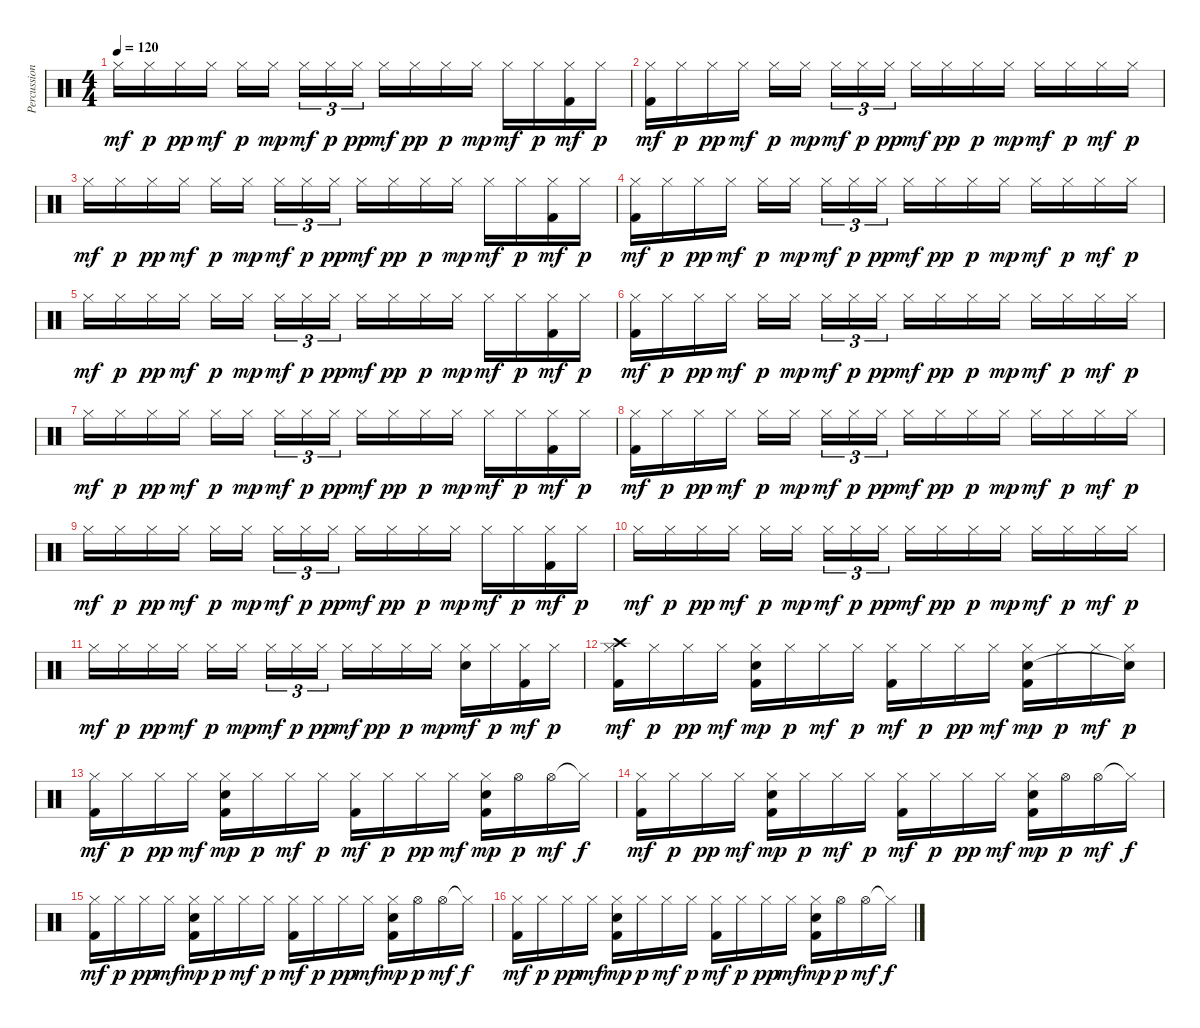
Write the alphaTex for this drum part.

\track ("Percussion" "Percussion") {instrument percussion}
\staff {score}
\articulation defaults
\ts (4 4)
\tempo 120
\clef neutral
\ks c "Hi-Hat (closed)".16{dy mf} "Hi-Hat (closed)".16{dy p} "Hi-Hat (closed)".16{dy pp} "Hi-Hat (closed)".16{dy mf} "Hi-Hat (closed)".16{dy p} "Hi-Hat (closed)".16{dy mp beam splitsecondary} "Hi-Hat (closed)".16{tu (3 2) dy mf} "Hi-Hat (closed)".16{tu (3 2) dy p} "Hi-Hat (closed)".16{tu (3 2) dy pp} "Hi-Hat (closed)".16{dy mf} "Hi-Hat (closed)".16{dy pp} "Hi-Hat (closed)".16{dy p} "Hi-Hat (closed)".16{dy mp} "Hi-Hat (closed)".16{dy mf} "Hi-Hat (closed)".16{dy p}
("Hi-Hat (closed)" "Kick (hit) 2").16{dy mf} "Hi-Hat (closed)".16{dy p} |
("Hi-Hat (closed)" "Kick (hit) 2").16{dy mf} "Hi-Hat (closed)".16{dy p} "Hi-Hat (closed)".16{dy pp} "Hi-Hat (closed)".16{dy mf} "Hi-Hat (closed)".16{dy p} "Hi-Hat (closed)".16{dy mp beam splitsecondary} "Hi-Hat (closed)".16{tu (3 2) dy mf} "Hi-Hat (closed)".16{tu (3 2) dy p} "Hi-Hat (closed)".16{tu (3 2) dy pp} "Hi-Hat (closed)".16{dy mf} "Hi-Hat (closed)".16{dy pp} "Hi-Hat (closed)".16{dy p} "Hi-Hat (closed)".16{dy mp} "Hi-Hat (closed)".16{dy mf} "Hi-Hat (closed)".16{dy p} "Hi-Hat (closed)".16{dy mf} "Hi-Hat (closed)".16{dy p} |
"Hi-Hat (closed)".16{dy mf} "Hi-Hat (closed)".16{dy p} "Hi-Hat (closed)".16{dy pp} "Hi-Hat (closed)".16{dy mf} "Hi-Hat (closed)".16{dy p} "Hi-Hat (closed)".16{dy mp beam splitsecondary} "Hi-Hat (closed)".16{tu (3 2) dy mf} "Hi-Hat (closed)".16{tu (3 2) dy p} "Hi-Hat (closed)".16{tu (3 2) dy pp} "Hi-Hat (closed)".16{dy mf} "Hi-Hat (closed)".16{dy pp} "Hi-Hat (closed)".16{dy p} "Hi-Hat (closed)".16{dy mp} "Hi-Hat (closed)".16{dy mf} "Hi-Hat (closed)".16{dy p} ("Hi-Hat (closed)" "Kick (hit) 2").16{dy mf} "Hi-Hat (closed)".16{dy p} |
("Hi-Hat (closed)" "Kick (hit) 2").16{dy mf} "Hi-Hat (closed)".16{dy p} "Hi-Hat (closed)".16{dy pp} "Hi-Hat (closed)".16{dy mf} "Hi-Hat (closed)".16{dy p} "Hi-Hat (closed)".16{dy mp beam splitsecondary} "Hi-Hat (closed)".16{tu (3 2) dy mf} "Hi-Hat (closed)".16{tu (3 2) dy p} "Hi-Hat (closed)".16{tu (3 2) dy pp} "Hi-Hat (closed)".16{dy mf} "Hi-Hat (closed)".16{dy pp} "Hi-Hat (closed)".16{dy p} "Hi-Hat (closed)".16{dy mp} "Hi-Hat (closed)".16{dy mf} "Hi-Hat (closed)".16{dy p} "Hi-Hat (closed)".16{dy mf} "Hi-Hat (closed)".16{dy p} |
"Hi-Hat (closed)".16{dy mf} "Hi-Hat (closed)".16{dy p} "Hi-Hat (closed)".16{dy pp} "Hi-Hat (closed)".16{dy mf} "Hi-Hat (closed)".16{dy p} "Hi-Hat (closed)".16{dy mp beam splitsecondary} "Hi-Hat (closed)".16{tu (3 2) dy mf} "Hi-Hat (closed)".16{tu (3 2) dy p} "Hi-Hat (closed)".16{tu (3 2) dy pp} "Hi-Hat (closed)".16{dy mf} "Hi-Hat (closed)".16{dy pp} "Hi-Hat (closed)".16{dy p} "Hi-Hat (closed)".16{dy mp} "Hi-Hat (closed)".16{dy mf} "Hi-Hat (closed)".16{dy p} ("Hi-Hat (closed)" "Kick (hit) 2").16{dy mf} "Hi-Hat (closed)".16{dy p} |
("Hi-Hat (closed)" "Kick (hit) 2").16{dy mf} "Hi-Hat (closed)".16{dy p} "Hi-Hat (closed)".16{dy pp} "Hi-Hat (closed)".16{dy mf} "Hi-Hat (closed)".16{dy p} "Hi-Hat (closed)".16{dy mp beam splitsecondary} "Hi-Hat (closed)".16{tu (3 2) dy mf} "Hi-Hat (closed)".16{tu (3 2) dy p} "Hi-Hat (closed)".16{tu (3 2) dy pp} "Hi-Hat (closed)".16{dy mf} "Hi-Hat (closed)".16{dy pp} "Hi-Hat (closed)".16{dy p} "Hi-Hat (closed)".16{dy mp} "Hi-Hat (closed)".16{dy mf} "Hi-Hat (closed)".16{dy p} "Hi-Hat (closed)".16{dy mf} "Hi-Hat (closed)".16{dy p} |
"Hi-Hat (closed)".16{dy mf} "Hi-Hat (closed)".16{dy p} "Hi-Hat (closed)".16{dy pp} "Hi-Hat (closed)".16{dy mf} "Hi-Hat (closed)".16{dy p} "Hi-Hat (closed)".16{dy mp beam splitsecondary} "Hi-Hat (closed)".16{tu (3 2) dy mf} "Hi-Hat (closed)".16{tu (3 2) dy p} "Hi-Hat (closed)".16{tu (3 2) dy pp} "Hi-Hat (closed)".16{dy mf} "Hi-Hat (closed)".16{dy pp} "Hi-Hat (closed)".16{dy p} "Hi-Hat (closed)".16{dy mp} "Hi-Hat (closed)".16{dy mf} "Hi-Hat (closed)".16{dy p} ("Hi-Hat (closed)" "Kick (hit) 2").16{dy mf} "Hi-Hat (closed)".16{dy p} |
("Hi-Hat (closed)" "Kick (hit) 2").16{dy mf} "Hi-Hat (closed)".16{dy p} "Hi-Hat (closed)".16{dy pp} "Hi-Hat (closed)".16{dy mf} "Hi-Hat (closed)".16{dy p} "Hi-Hat (closed)".16{dy mp beam splitsecondary} "Hi-Hat (closed)".16{tu (3 2) dy mf} "Hi-Hat (closed)".16{tu (3 2) dy p} "Hi-Hat (closed)".16{tu (3 2) dy pp} "Hi-Hat (closed)".16{dy mf} "Hi-Hat (closed)".16{dy pp} "Hi-Hat (closed)".16{dy p} "Hi-Hat (closed)".16{dy mp} "Hi-Hat (closed)".16{dy mf} "Hi-Hat (closed)".16{dy p} "Hi-Hat (closed)".16{dy mf} "Hi-Hat (closed)".16{dy p} |
"Hi-Hat (closed)".16{dy mf} "Hi-Hat (closed)".16{dy p} "Hi-Hat (closed)".16{dy pp} "Hi-Hat (closed)".16{dy mf} "Hi-Hat (closed)".16{dy p} "Hi-Hat (closed)".16{dy mp beam splitsecondary} "Hi-Hat (closed)".16{tu (3 2) dy mf} "Hi-Hat (closed)".16{tu (3 2) dy p} "Hi-Hat (closed)".16{tu (3 2) dy pp} "Hi-Hat (closed)".16{dy mf} "Hi-Hat (closed)".16{dy pp} "Hi-Hat (closed)".16{dy p} "Hi-Hat (closed)".16{dy mp} "Hi-Hat (closed)".16{dy mf} "Hi-Hat (closed)".16{dy p} ("Hi-Hat (closed)" "Kick (hit) 2").16{dy mf} "Hi-Hat (closed)".16{dy p} |
"Hi-Hat (closed)".16{dy mf} "Hi-Hat (closed)".16{dy p} "Hi-Hat (closed)".16{dy pp} "Hi-Hat (closed)".16{dy mf} "Hi-Hat (closed)".16{dy p} "Hi-Hat (closed)".16{dy mp beam splitsecondary} "Hi-Hat (closed)".16{tu (3 2) dy mf} "Hi-Hat (closed)".16{tu (3 2) dy p} "Hi-Hat (closed)".16{tu (3 2) dy pp} "Hi-Hat (closed)".16{dy mf} "Hi-Hat (closed)".16{dy pp} "Hi-Hat (closed)".16{dy p} "Hi-Hat (closed)".16{dy mp} "Hi-Hat (closed)".16{dy mf} "Hi-Hat (closed)".16{dy p} "Hi-Hat (closed)".16{dy mf} "Hi-Hat (closed)".16{dy p} |
"Hi-Hat (closed)".16{dy mf} "Hi-Hat (closed)".16{dy p} "Hi-Hat (closed)".16{dy pp} "Hi-Hat (closed)".16{dy mf} "Hi-Hat (closed)".16{dy p} "Hi-Hat (closed)".16{dy mp beam splitsecondary} "Hi-Hat (closed)".16{tu (3 2) dy mf} "Hi-Hat (closed)".16{tu (3 2) dy p} "Hi-Hat (closed)".16{tu (3 2) dy pp} "Hi-Hat (closed)".16{dy mf} "Hi-Hat (closed)".16{dy pp} "Hi-Hat (closed)".16{dy p} "Hi-Hat (closed)".16{dy mp} ("Hi-Hat (closed)" "Electric Snare (hit)").16{dy mf} "Hi-Hat (closed)".16{dy p} ("Hi-Hat (closed)" "Kick (hit) 2").16{dy mf} "Hi-Hat (closed)".16{dy p} |
("Hi-Hat (closed)" "Crash high (hit)" "Kick (hit) 2").16{dy mf} "Hi-Hat (closed)".16{dy p} "Hi-Hat (closed)".16{dy pp} "Hi-Hat (closed)".16{dy mf} ("Hi-Hat (closed)" "Electric Snare (hit)" "Kick (hit) 2").16{dy mp} "Hi-Hat (closed)".16{dy p} "Hi-Hat (closed)".16{dy mf} "Hi-Hat (closed)".16{dy p} ("Hi-Hat (closed)" "Kick (hit) 2").16{dy mf} "Hi-Hat (closed)".16{dy p} "Hi-Hat (closed)".16{dy pp} "Hi-Hat (closed)".16{dy mf} ("Hi-Hat (closed)" "Electric Snare (hit)" "Kick (hit) 2").16{dy mp} "Hi-Hat (closed)".16{dy p} "Hi-Hat (closed)".16{dy mf} ("Hi-Hat (closed)" "Snare (hit)"{t}).16{dy p} |
("Hi-Hat (closed)" "Kick (hit) 2").16{dy mf} "Hi-Hat (closed)".16{dy p} "Hi-Hat (closed)".16{dy pp} "Hi-Hat (closed)".16{dy mf} ("Hi-Hat (closed)" "Electric Snare (hit)" "Kick (hit) 2").16{dy mp} "Hi-Hat (closed)".16{dy p} "Hi-Hat (closed)".16{dy mf} "Hi-Hat (closed)".16{dy p} ("Hi-Hat (closed)" "Kick (hit) 2").16{dy mf} "Hi-Hat (closed)".16{dy p} "Hi-Hat (closed)".16{dy pp} "Hi-Hat (closed)".16{dy mf} ("Hi-Hat (closed)" "Electric Snare (hit)" "Kick (hit) 2").16{dy mp} "Hi-Hat (open)".16{dy p} "Hi-Hat (open)".16{dy mf} "Hi-Hat (closed)"{t}.16{dy f} |
("Hi-Hat (closed)" "Kick (hit) 2").16{dy mf} "Hi-Hat (closed)".16{dy p} "Hi-Hat (closed)".16{dy pp} "Hi-Hat (closed)".16{dy mf} ("Hi-Hat (closed)" "Electric Snare (hit)" "Kick (hit) 2").16{dy mp} "Hi-Hat (closed)".16{dy p} "Hi-Hat (closed)".16{dy mf} "Hi-Hat (closed)".16{dy p} ("Hi-Hat (closed)" "Kick (hit) 2").16{dy mf} "Hi-Hat (closed)".16{dy p} "Hi-Hat (closed)".16{dy pp} "Hi-Hat (closed)".16{dy mf} ("Hi-Hat (closed)" "Electric Snare (hit)" "Kick (hit) 2").16{dy mp} "Hi-Hat (open)".16{dy p} "Hi-Hat (open)".16{dy mf} "Hi-Hat (closed)"{t}.16{dy f} |
("Hi-Hat (closed)" "Kick (hit) 2").16{dy mf} "Hi-Hat (closed)".16{dy p} "Hi-Hat (closed)".16{dy pp} "Hi-Hat (closed)".16{dy mf} ("Hi-Hat (closed)" "Electric Snare (hit)" "Kick (hit) 2").16{dy mp} "Hi-Hat (closed)".16{dy p} "Hi-Hat (closed)".16{dy mf} "Hi-Hat (closed)".16{dy p} ("Hi-Hat (closed)" "Kick (hit) 2").16{dy mf} "Hi-Hat (closed)".16{dy p} "Hi-Hat (closed)".16{dy pp} "Hi-Hat (closed)".16{dy mf} ("Hi-Hat (closed)" "Electric Snare (hit)" "Kick (hit) 2").16{dy mp} "Hi-Hat (open)".16{dy p} "Hi-Hat (open)".16{dy mf} "Hi-Hat (closed)"{t}.16{dy f} |
("Hi-Hat (closed)" "Kick (hit) 2").16{dy mf} "Hi-Hat (closed)".16{dy p} "Hi-Hat (closed)".16{dy pp} "Hi-Hat (closed)".16{dy mf} ("Hi-Hat (closed)" "Electric Snare (hit)" "Kick (hit) 2").16{dy mp} "Hi-Hat (closed)".16{dy p} "Hi-Hat (closed)".16{dy mf} "Hi-Hat (closed)".16{dy p} ("Hi-Hat (closed)" "Kick (hit) 2").16{dy mf} "Hi-Hat (closed)".16{dy p} "Hi-Hat (closed)".16{dy pp} "Hi-Hat (closed)".16{dy mf} ("Hi-Hat (closed)" "Electric Snare (hit)" "Kick (hit) 2").16{dy mp} "Hi-Hat (open)".16{dy p} "Hi-Hat (open)".16{dy mf} "Hi-Hat (closed)"{t}.16{dy f}
